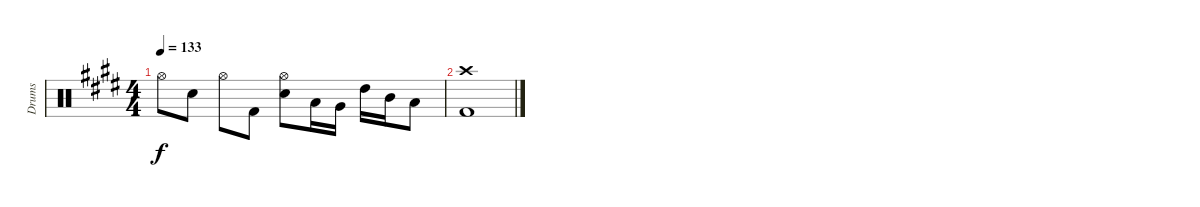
\track ("Drums" "Drums") {instrument percussion}
\staff {score}
\articulation defaults
\ts (4 4)
\tempo 133
\clef neutral
\ks e "Hi-Hat (open)".8{dy f} "Electric Snare (hit)".8 "Hi-Hat (open)".8 "Kick (hit) 2".8
("Hi-Hat (open)" "Electric Snare (hit)").8 "Low Tom (hit)".16 "Very Low Tom (hit)".16 "High Tom (hit)".16 "Mid Tom (hit)".16 "Low Tom (hit)".8 |
("Crash high (hit)" "Kick (hit) 2").1
